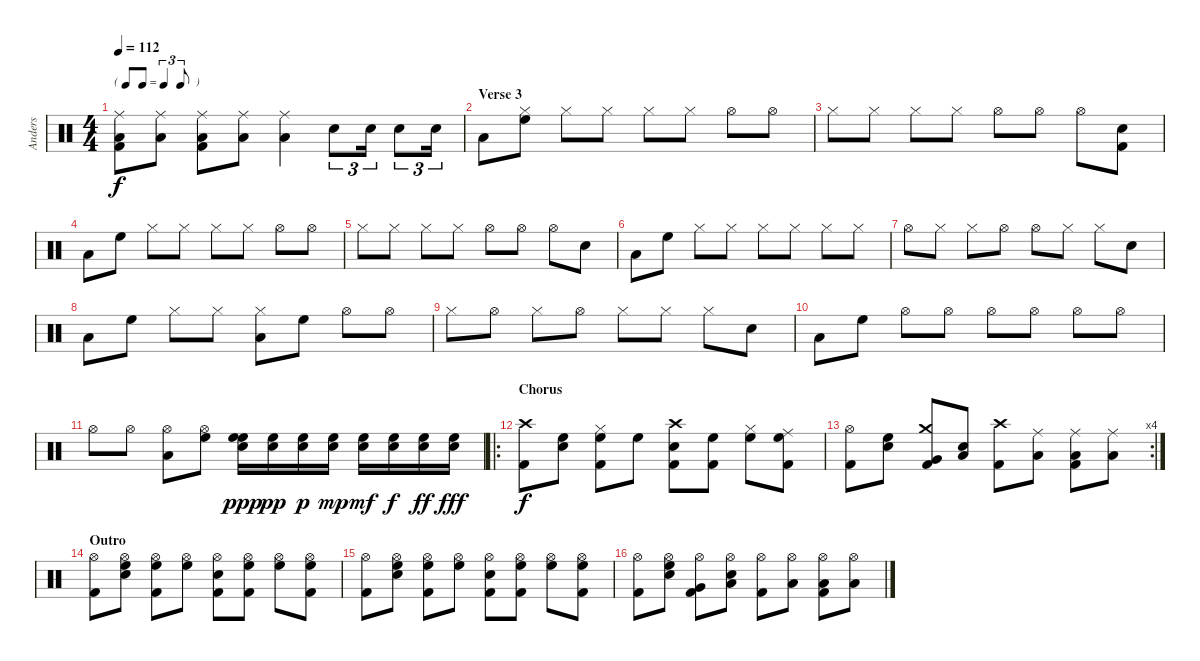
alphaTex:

\track ("Anders" "Anders") {instrument percussion}
\staff {score}
\articulation defaults
\ts (4 4)
\tf triplet8th
\tempo 112
\clef neutral
\ks c
("Ride (middle)" "Low Floor Tom (hit)" "Kick (hit) 2").8{dy f} ("Ride (middle)" "Low Floor Tom (hit)").8 ("Ride (middle)" "Low Floor Tom (hit)" "Kick (hit) 2").8 ("Ride (middle)" "Low Floor Tom (hit)").8 ("Ride (middle)" "Low Floor Tom (hit)").4 "Snare (hit) 2".8{tu (3 2)} "Snare (hit) 2".16{tu (3 2)} "Snare (hit) 2".8{tu (3 2)} "Snare (hit) 2".16{tu (3 2)} |
\section ("" "Verse 3")
"Low Tom (hit)".8 ("Hi-Hat (closed)" "High Floor Tom (hit)").8 "Hi-Hat (closed)".8 "Hi-Hat (closed)".8 "Hi-Hat (closed)".8 "Hi-Hat (closed)".8 "Hi-Hat (open)".8 "Hi-Hat (open)".8 |
"Hi-Hat (closed)".8 "Hi-Hat (closed)".8 "Hi-Hat (closed)".8 "Hi-Hat (closed)".8 "Hi-Hat (open)".8 "Hi-Hat (open)".8 "Hi-Hat (open)".8 ("Snare (hit) 2" "Kick (hit) 2").8 |
"Low Tom (hit)".8 "High Floor Tom (hit)".8 "Hi-Hat (closed)".8 "Hi-Hat (closed)".8 "Hi-Hat (closed)".8 "Hi-Hat (closed)".8 "Hi-Hat (open)".8 "Hi-Hat (open)".8 |
"Hi-Hat (closed)".8 "Hi-Hat (closed)".8 "Hi-Hat (closed)".8 "Hi-Hat (closed)".8 "Hi-Hat (open)".8 "Hi-Hat (open)".8 "Hi-Hat (open)".8 "Snare (hit) 2".8 |
"Low Tom (hit)".8 "High Floor Tom (hit)".8 "Hi-Hat (closed)".8 "Hi-Hat (closed)".8 "Hi-Hat (closed)".8 "Hi-Hat (closed)".8 "Hi-Hat (closed)".8 "Hi-Hat (closed)".8 |
"Hi-Hat (open)".8 "Hi-Hat (closed)".8 "Hi-Hat (closed)".8 "Hi-Hat (open)".8 "Hi-Hat (open)".8 "Hi-Hat (closed)".8 "Hi-Hat (closed)".8 "Snare (hit) 2".8 |
"Low Tom (hit)".8 "High Floor Tom (hit)".8 "Hi-Hat (closed)".8 "Hi-Hat (closed)".8 ("Hi-Hat (closed)" "Low Tom (hit)").8 "High Floor Tom (hit)".8 "Hi-Hat (open)".8 "Hi-Hat (open)".8 |
"Hi-Hat (closed)".8 "Hi-Hat (open)".8 "Hi-Hat (closed)".8 "Hi-Hat (open)".8 "Hi-Hat (closed)".8 "Hi-Hat (closed)".8 "Hi-Hat (closed)".8 "Snare (hit) 2".8 |
"Low Tom (hit)".8 "High Floor Tom (hit)".8 "Hi-Hat (open)".8 "Hi-Hat (open)".8 "Hi-Hat (open)".8 "Hi-Hat (open)".8 "Hi-Hat (open)".8 "Hi-Hat (open)".8 |
"Hi-Hat (open)".8 "Hi-Hat (open)".8 ("Hi-Hat (open)" "Low Tom (hit)").8 ("Hi-Hat (open)" "High Floor Tom (hit)").8 ("Snare (hit) 2" "High Floor Tom (hit)" "High Floor Tom (hit)").16{dy ppp} ("Snare (hit) 2" "High Floor Tom (hit)").16{dy pp} ("Snare (hit) 2" "High Floor Tom (hit)").16{dy p} ("Snare (hit) 2" "High Floor Tom (hit)").16{dy mp} ("Snare (hit) 2" "High Floor Tom (hit)").16{dy mf} ("Snare (hit) 2" "High Floor Tom (hit)").16{dy f} ("Snare (hit) 2" "High Floor Tom (hit)").16{dy ff} ("Snare (hit) 2" "High Floor Tom (hit)").16{dy fff} |
\ro
\section ("" "Chorus")
("Crash high (hit)" "Kick (hit) 2").8{dy f} ("Snare (hit) 2" "High Floor Tom (hit)").8 ("Hi-Hat (closed)" "High Floor Tom (hit)" "Kick (hit) 2").8 "High Floor Tom (hit)".8 ("Crash high (hit)" "Snare (hit) 2" "Kick (hit) 2").8 ("High Floor Tom (hit)" "Kick (hit) 2").8 ("Hi-Hat (closed)" "High Floor Tom (hit)").8 ("Ride (middle)" "High Floor Tom (hit)" "Kick (hit) 2").8 |
\rc 4
("Hi-Hat (open)" "Kick (hit) 2").8 ("High Floor Tom (hit)" "Snare (hit) 2").8 ("Crash medium (hit)" "Very Low Tom (hit)" "Kick (hit) 2").8 ("Snare (hit) 2" "Low Tom (hit)").8 ("Crash high (hit)" "Kick (hit) 2").8 ("Ride (middle)" "Low Floor Tom (hit)").8 ("Ride (middle)" "Low Floor Tom (hit)" "Kick (hit) 2").8 ("Ride (middle)" "Low Floor Tom (hit)").8 |
\section ("" "Outro")
("Hi-Hat (open)" "Kick (hit) 2").8 ("Hi-Hat (open)" "Snare (hit) 2" "High Floor Tom (hit)").8 ("Hi-Hat (open)" "High Floor Tom (hit)" "Kick (hit) 2").8 ("Hi-Hat (open)" "High Floor Tom (hit)").8 ("Hi-Hat (open)" "Snare (hit) 2" "Kick (hit) 2").8 ("Hi-Hat (open)" "High Floor Tom (hit)" "Kick (hit) 2").8 ("Hi-Hat (open)" "High Floor Tom (hit)").8 ("Hi-Hat (open)" "High Floor Tom (hit)" "Kick (hit) 2").8 |
("Hi-Hat (open)" "Kick (hit) 2").8 ("Hi-Hat (open)" "Snare (hit) 2" "High Floor Tom (hit)").8 ("Hi-Hat (open)" "High Floor Tom (hit)" "Kick (hit) 2").8 ("Hi-Hat (open)" "High Floor Tom (hit)").8 ("Hi-Hat (open)" "Snare (hit) 2" "Kick (hit) 2").8 ("Hi-Hat (open)" "High Floor Tom (hit)" "Kick (hit) 2").8 ("Hi-Hat (open)" "High Floor Tom (hit)").8 ("Hi-Hat (open)" "High Floor Tom (hit)" "Kick (hit) 2").8 |
("Hi-Hat (open)" "Kick (hit) 2").8 ("Hi-Hat (open)" "High Floor Tom (hit)" "Snare (hit) 2").8 ("Hi-Hat (open)" "Very Low Tom (hit)" "Kick (hit) 2").8 ("Hi-Hat (open)" "Snare (hit) 2" "Low Tom (hit)").8 ("Hi-Hat (open)" "Kick (hit) 2").8 ("Hi-Hat (open)" "Low Floor Tom (hit)").8 ("Hi-Hat (open)" "Low Floor Tom (hit)" "Kick (hit) 2").8 ("Hi-Hat (open)" "Low Floor Tom (hit)").8
